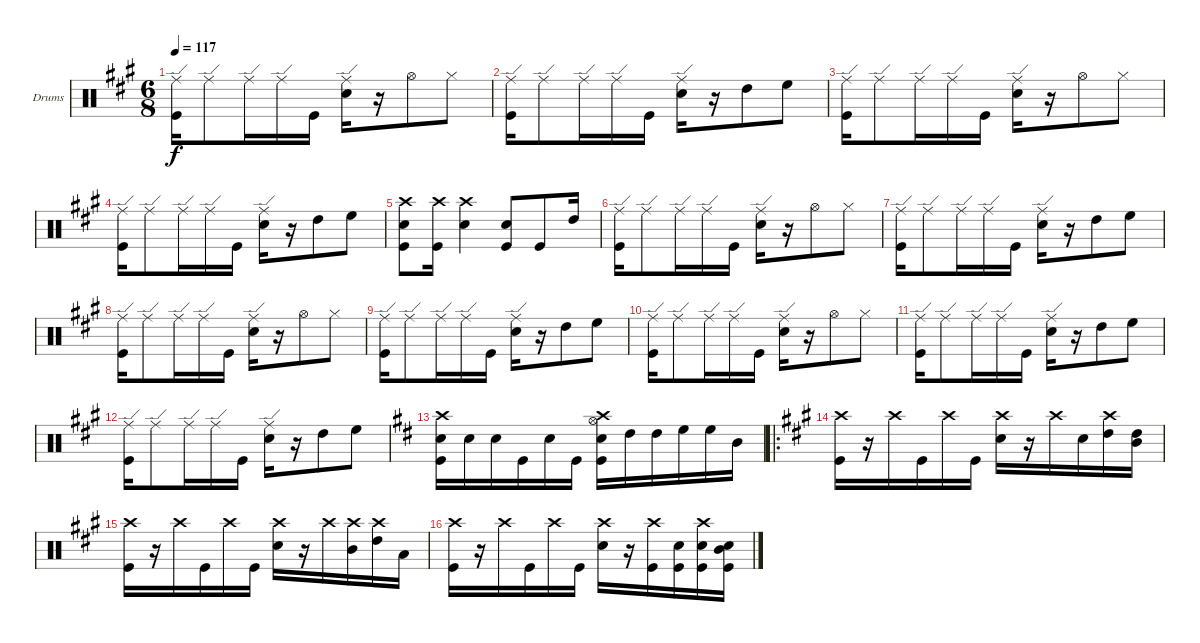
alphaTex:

\bracketExtendMode groupsimilarinstruments
\firstSystemTrackNameOrientation horizontal
\otherSystemsTrackNameOrientation horizontal
\track ("Drumkit" "Drums") {instrument percussion}
\staff {score}
\articulation defaults
\ts (6 8)
\tempo 117
\clef neutral
\ks a
("Ride (edge)" "Kick (hit)").16{dy f} "Ride (edge)".8 "Ride (edge)".16 "Ride (edge)".16 "Kick (hit)".16 ("Ride (edge)" "Snare (hit) 2").16 r.16 "Hi-Hat (open)".8 "Hi-Hat (closed)".8 |
("Ride (edge)" "Kick (hit)").16 "Ride (edge)".8 "Ride (edge)".16 "Ride (edge)".16 "Kick (hit)".16 ("Ride (edge)" "Snare (hit) 2").16 r.16 "High Tom (hit)".8 "High Floor Tom (hit)".8 |
("Ride (edge)" "Kick (hit)").16 "Ride (edge)".8 "Ride (edge)".16 "Ride (edge)".16 "Kick (hit)".16 ("Ride (edge)" "Snare (hit) 2").16 r.16 "Hi-Hat (open)".8 "Hi-Hat (closed)".8 |
("Ride (edge)" "Kick (hit)").16 "Ride (edge)".8 "Ride (edge)".16 "Ride (edge)".16 "Kick (hit)".16 ("Ride (edge)" "Snare (hit) 2").16 r.16 "High Tom (hit)".8 "High Floor Tom (hit)".8 |
("Crash high (hit)" "Snare (hit) 2" "Kick (hit)").8 ("Crash high (hit)" "Kick (hit)").16 ("Crash high (hit)" "Snare (hit) 2").4 ("Snare (hit) 2" "Kick (hit)").8 "Kick (hit)".8 "High Tom (hit)".16 |
("Ride (edge)" "Kick (hit)").16 "Ride (edge)".8 "Ride (edge)".16 "Ride (edge)".16 "Kick (hit)".16 ("Ride (edge)" "Snare (hit) 2").16 r.16 "Hi-Hat (open)".8 "Hi-Hat (closed)".8 |
("Ride (edge)" "Kick (hit)").16 "Ride (edge)".8 "Ride (edge)".16 "Ride (edge)".16 "Kick (hit)".16 ("Ride (edge)" "Snare (hit) 2").16 r.16 "High Tom (hit)".8 "High Floor Tom (hit)".8 |
("Ride (edge)" "Kick (hit)").16 "Ride (edge)".8 "Ride (edge)".16 "Ride (edge)".16 "Kick (hit)".16 ("Ride (edge)" "Snare (hit) 2").16 r.16 "Hi-Hat (open)".8 "Hi-Hat (closed)".8 |
("Ride (edge)" "Kick (hit)").16 "Ride (edge)".8 "Ride (edge)".16 "Ride (edge)".16 "Kick (hit)".16 ("Ride (edge)" "Snare (hit) 2").16 r.16 "High Tom (hit)".8 "High Floor Tom (hit)".8 |
("Ride (edge)" "Kick (hit)").16 "Ride (edge)".8 "Ride (edge)".16 "Ride (edge)".16 "Kick (hit)".16 ("Ride (edge)" "Snare (hit) 2").16 r.16 "Hi-Hat (open)".8 "Hi-Hat (closed)".8 |
("Ride (edge)" "Kick (hit)").16 "Ride (edge)".8 "Ride (edge)".16 "Ride (edge)".16 "Kick (hit)".16 ("Ride (edge)" "Snare (hit) 2").16 r.16 "High Tom (hit)".8 "High Floor Tom (hit)".8 |
("Ride (edge)" "Kick (hit)").16 "Ride (edge)".8 "Ride (edge)".16 "Ride (edge)".16 "Kick (hit)".16 ("Ride (edge)" "Snare (hit) 2").16 r.16 "High Tom (hit)".8 "High Floor Tom (hit)".8 |
\ks d
("Crash high (hit)" "Kick (hit)" "Snare (hit) 2").16 "Snare (hit) 2".16 "Snare (hit) 2".16 "Kick (hit)".16 "Snare (hit) 2".16 "Kick (hit)".16 ("Crash high (hit)" "Hi-Hat (open)" "Snare (hit) 2" "Kick (hit)").16 "High Tom (hit)".16 "High Tom (hit)".16 "High Floor Tom (hit)".16 "High Floor Tom (hit)".16 "Mid Tom (hit)".16 |
\ro
\ks a
("Crash high (hit)" "Kick (hit)").16 r.16 "Crash high (hit)".16 "Kick (hit)".16 "Crash high (hit)".16 "Kick (hit)".16 ("Crash high (hit)" "Snare (hit) 2").16 r.16 "Crash high (hit)".16 "Snare (hit) 2".16 ("High Tom (hit)" "Crash high (hit)").16 ("High Tom (hit)" "Mid Tom (hit)").16 |
("Crash high (hit)" "Kick (hit)").16 r.16 "Crash high (hit)".16 "Kick (hit)".16 "Crash high (hit)".16 "Kick (hit)".16 ("Crash high (hit)" "Snare (hit) 2").16 r.16 "Crash high (hit)".16 ("Mid Tom (hit)" "Crash high (hit)").16 ("High Tom (hit)" "Crash high (hit)").16 "Low Tom (hit)".16 |
("Crash high (hit)" "Kick (hit)").16 r.16 "Crash high (hit)".16 "Kick (hit)".16 "Crash high (hit)".16 "Kick (hit)".16 ("Crash high (hit)" "Snare (hit) 2").16 r.16 ("Crash high (hit)" "Kick (hit)").16 ("Snare (hit) 2" "Kick (hit)").16 ("Crash high (hit)" "Snare (hit) 2" "Kick (hit)").16 ("Mid Tom (hit)" "Snare (hit) 2" "Kick (hit)").16
